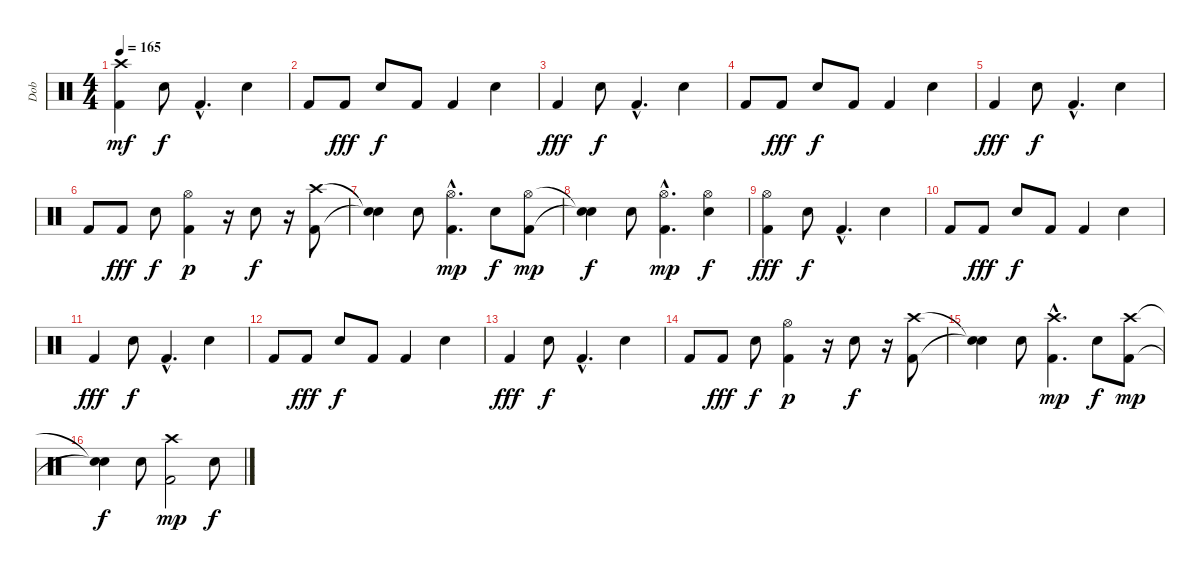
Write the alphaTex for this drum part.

\track ("Dob" "Dob") {instrument percussion}
\staff {score}
\articulation defaults
\ts (4 4)
\tempo 165
\clef neutral
\ks c
("Kick (hit) 2" "Crash high (hit)").4{dy mf} "Electric Snare (hit)".8{dy f} "Kick (hit) 2"{hac}.4{d} "Electric Snare (hit)".4 |
"Kick (hit) 2".8 "Kick (hit) 2".8{dy fff} "Electric Snare (hit)".8{dy f} "Kick (hit) 2".8 "Kick (hit) 2".4 "Electric Snare (hit)".4 |
"Kick (hit) 2".4{dy fff} "Electric Snare (hit)".8{dy f} "Kick (hit) 2"{hac}.4{d} "Electric Snare (hit)".4 |
"Kick (hit) 2".8 "Kick (hit) 2".8{dy fff} "Electric Snare (hit)".8{dy f} "Kick (hit) 2".8 "Kick (hit) 2".4 "Electric Snare (hit)".4 |
"Kick (hit) 2".4{dy fff} "Electric Snare (hit)".8{dy f} "Kick (hit) 2"{hac}.4{d} "Electric Snare (hit)".4 |
"Kick (hit) 2".8 "Kick (hit) 2".8{dy fff} "Electric Snare (hit)".8{dy f} ("Kick (hit) 2" "Hi-Hat (open)").4{dy p} r.16 "Electric Snare (hit)"{tr (40 16)}.8{dy f} r.16 ("Kick (hit) 2" "Crash high (hit)").8 |
("Snare (hit)"{t} "Snare (hit)"{t}).4 "Electric Snare (hit)".8 ("Kick (hit) 2"{hac} "Hi-Hat (open)"{hac}).4{d dy mp} "Electric Snare (hit)".8{dy f} ("Kick (hit) 2" "Hi-Hat (open)").8{dy mp} |
("Snare (hit)"{t} "Snare (hit)"{t}).4{dy f} "Electric Snare (hit)".8 ("Kick (hit) 2"{hac} "Hi-Hat (open)"{hac}).4{d dy mp} ("Electric Snare (hit)" "Hi-Hat (open)").4{dy f} |
("Kick (hit) 2" "Hi-Hat (open)").4{dy fff} "Electric Snare (hit)".8{dy f} "Kick (hit) 2"{hac}.4{d} "Electric Snare (hit)".4 |
"Kick (hit) 2".8 "Kick (hit) 2".8{dy fff} "Electric Snare (hit)".8{dy f} "Kick (hit) 2".8 "Kick (hit) 2".4 "Electric Snare (hit)".4 |
"Kick (hit) 2".4{dy fff} "Electric Snare (hit)".8{dy f} "Kick (hit) 2"{hac}.4{d} "Electric Snare (hit)".4 |
"Kick (hit) 2".8 "Kick (hit) 2".8{dy fff} "Electric Snare (hit)".8{dy f} "Kick (hit) 2".8 "Kick (hit) 2".4 "Electric Snare (hit)".4 |
"Kick (hit) 2".4{dy fff} "Electric Snare (hit)".8{dy f} "Kick (hit) 2"{hac}.4{d} "Electric Snare (hit)".4 |
"Kick (hit) 2".8 "Kick (hit) 2".8{dy fff} "Electric Snare (hit)".8{dy f} ("Kick (hit) 2" "Hi-Hat (open)").4{dy p} r.16 "Electric Snare (hit)"{tr (40 16)}.8{dy f} r.16 ("Kick (hit) 2" "Crash high (hit)").8 |
("Snare (hit)"{t} "Snare (hit)"{t}).4 "Electric Snare (hit)".8 ("Kick (hit) 2"{hac} "Crash high (hit)"{hac}).4{d dy mp} "Electric Snare (hit)".8{dy f} ("Kick (hit) 2" "Crash high (hit)").8{dy mp} |
("Snare (hit)"{t} "Snare (hit)"{t}).4{dy f} "Electric Snare (hit)".8 ("Kick (hit) 2" "Crash high (hit)").2{dy mp} "Electric Snare (hit)".8{dy f}
